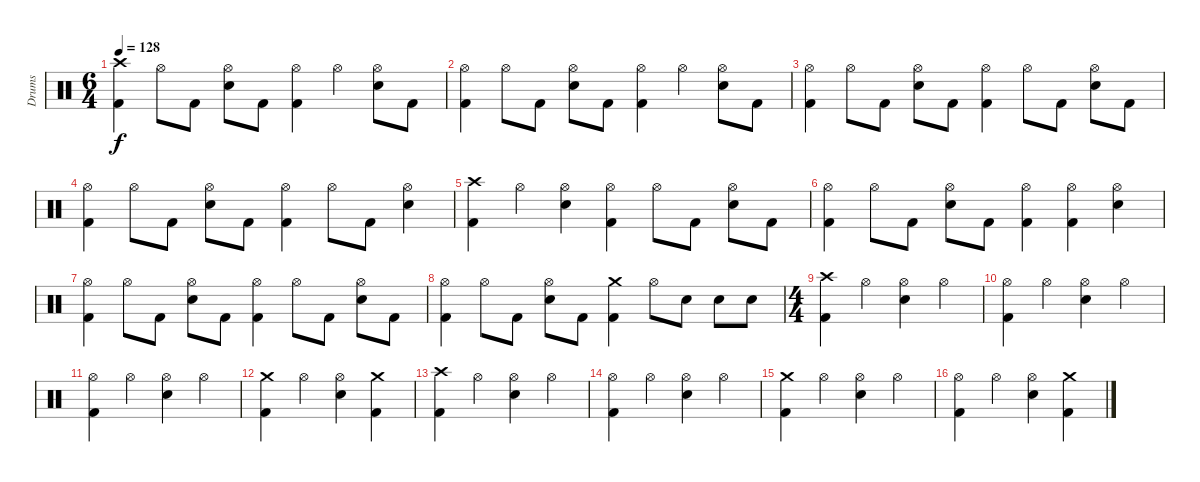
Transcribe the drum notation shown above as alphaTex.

\track ("Drums" "Drums") {instrument percussion}
\staff {score}
\articulation defaults
\ts (6 4)
\tempo 128
\clef neutral
\ks c
("Crash high (hit)" "Kick (hit) 2").4{dy f} "Hi-Hat (open)".8 "Kick (hit) 2".8 ("Hi-Hat (open)" "Electric Snare (hit)").8 "Kick (hit) 2".8 ("Hi-Hat (open)" "Kick (hit) 2").4 "Hi-Hat (open)".4 ("Hi-Hat (open)" "Electric Snare (hit)").8 "Kick (hit) 2".8 |
("Hi-Hat (open)" "Kick (hit) 2").4 "Hi-Hat (open)".8 "Kick (hit) 2".8 ("Hi-Hat (open)" "Electric Snare (hit)").8 "Kick (hit) 2".8 ("Hi-Hat (open)" "Kick (hit) 2").4 "Hi-Hat (open)".4 ("Hi-Hat (open)" "Electric Snare (hit)").8 "Kick (hit) 2".8 |
("Hi-Hat (open)" "Kick (hit) 2").4 "Hi-Hat (open)".8 "Kick (hit) 2".8 ("Hi-Hat (open)" "Electric Snare (hit)").8 "Kick (hit) 2".8 ("Hi-Hat (open)" "Kick (hit) 2").4 "Hi-Hat (open)".8 "Kick (hit) 2".8 ("Hi-Hat (open)" "Electric Snare (hit)").8 "Kick (hit) 2".8 |
("Hi-Hat (open)" "Kick (hit) 2").4 "Hi-Hat (open)".8 "Kick (hit) 2".8 ("Hi-Hat (open)" "Electric Snare (hit)").8 "Kick (hit) 2".8 ("Hi-Hat (open)" "Kick (hit) 2").4 "Hi-Hat (open)".8 "Kick (hit) 2".8 ("Hi-Hat (open)" "Electric Snare (hit)").4 |
("Crash high (hit)" "Kick (hit) 2").4 "Hi-Hat (open)".4 ("Hi-Hat (open)" "Electric Snare (hit)").4 ("Hi-Hat (open)" "Kick (hit) 2").4 "Hi-Hat (open)".8 "Kick (hit) 2".8 ("Hi-Hat (open)" "Electric Snare (hit)").8 "Kick (hit) 2".8 |
("Hi-Hat (open)" "Kick (hit) 2").4 "Hi-Hat (open)".8 "Kick (hit) 2".8 ("Hi-Hat (open)" "Electric Snare (hit)").8 "Kick (hit) 2".8 ("Hi-Hat (open)" "Kick (hit) 2").4 ("Hi-Hat (open)" "Kick (hit) 2").4 ("Hi-Hat (open)" "Electric Snare (hit)").4 |
("Hi-Hat (open)" "Kick (hit) 2").4 "Hi-Hat (open)".8 "Kick (hit) 2".8 ("Hi-Hat (open)" "Electric Snare (hit)").8 "Kick (hit) 2".8 ("Hi-Hat (open)" "Kick (hit) 2").4 "Hi-Hat (open)".8 "Kick (hit) 2".8 ("Hi-Hat (open)" "Electric Snare (hit)").8 "Kick (hit) 2".8 |
("Hi-Hat (open)" "Kick (hit) 2").4 "Hi-Hat (open)".8 "Kick (hit) 2".8 ("Hi-Hat (open)" "Electric Snare (hit)").8 "Kick (hit) 2".8 ("Crash medium (hit)" "Kick (hit) 2").4 "Hi-Hat (open)".8 "Electric Snare (hit)".8 "Electric Snare (hit)".8 "Electric Snare (hit)".8 |
\ts (4 4)
("Crash high (hit)" "Kick (hit) 2").4 "Hi-Hat (open)".4 ("Hi-Hat (open)" "Electric Snare (hit)").4 "Hi-Hat (open)".4 |
("Hi-Hat (open)" "Kick (hit) 2").4 "Hi-Hat (open)".4 ("Hi-Hat (open)" "Electric Snare (hit)").4 "Hi-Hat (open)".4 |
("Hi-Hat (open)" "Kick (hit) 2").4 "Hi-Hat (open)".4 ("Hi-Hat (open)" "Electric Snare (hit)").4 "Hi-Hat (open)".4 |
("Crash medium (hit)" "Kick (hit) 2").4 "Hi-Hat (open)".4 ("Hi-Hat (open)" "Electric Snare (hit)").4 ("Crash medium (hit)" "Kick (hit) 2").4 |
("Crash high (hit)" "Kick (hit) 2").4 "Hi-Hat (open)".4 ("Hi-Hat (open)" "Electric Snare (hit)").4 "Hi-Hat (open)".4 |
("Hi-Hat (open)" "Kick (hit) 2").4 "Hi-Hat (open)".4 ("Hi-Hat (open)" "Electric Snare (hit)").4 "Hi-Hat (open)".4 |
("Crash medium (hit)" "Kick (hit) 2").4 "Hi-Hat (open)".4 ("Hi-Hat (open)" "Electric Snare (hit)").4 "Hi-Hat (open)".4 |
("Hi-Hat (open)" "Kick (hit) 2").4 "Hi-Hat (open)".4 ("Hi-Hat (open)" "Electric Snare (hit)").4 ("Crash medium (hit)" "Kick (hit) 2").4
